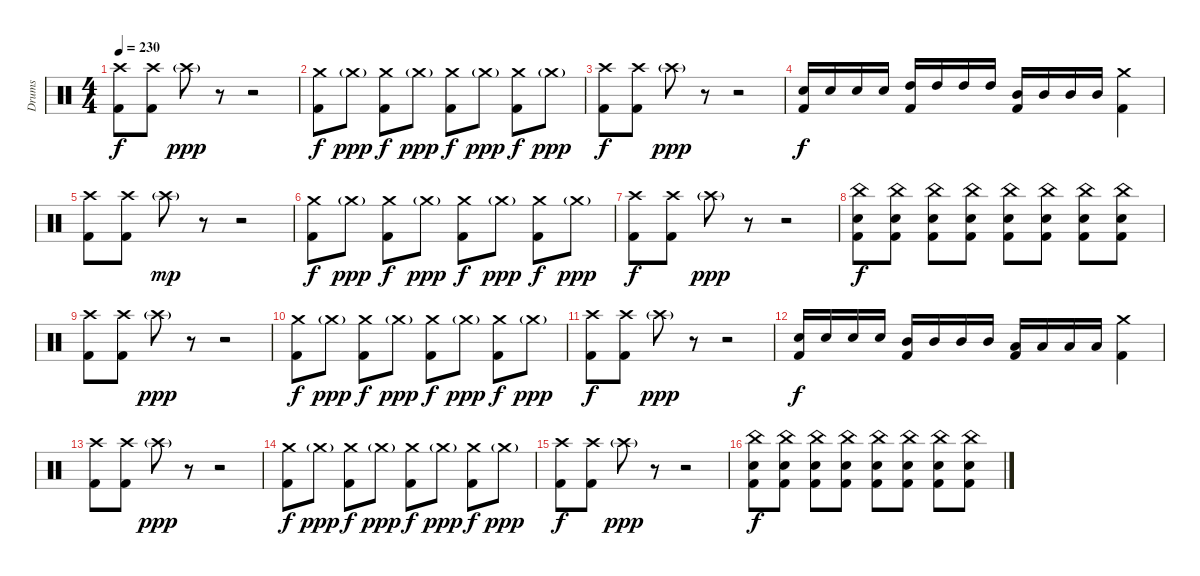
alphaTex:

\track ("Drums" "Drums") {instrument percussion}
\staff {score}
\articulation defaults
\ts (4 4)
\tempo 230
\clef neutral
\ks c
("Crash high (hit)" "Kick (hit) 2").8{dy f} ("Crash high (hit)" "Kick (hit) 2").8 "Crash high (hit)"{g}.8{dy ppp} r.8 r.2 |
("Crash medium (hit)" "Kick (hit) 2").8{dy f} "Crash medium (hit)"{g}.8{dy ppp} ("Crash medium (hit)" "Kick (hit) 2").8{dy f} "Crash medium (hit)"{g}.8{dy ppp} ("Crash medium (hit)" "Kick (hit) 2").8{dy f} "Crash medium (hit)"{g}.8{dy ppp} ("Crash medium (hit)" "Kick (hit) 2").8{dy f} "Crash medium (hit)"{g}.8{dy ppp} |
("Crash high (hit)" "Kick (hit) 2").8{dy f} ("Crash high (hit)" "Kick (hit) 2").8 "Crash high (hit)"{g}.8{dy ppp} r.8 r.2 |
("Electric Snare (hit)" "Kick (hit) 2").16{dy f} "Electric Snare (hit)".16 "Electric Snare (hit)".16 "Electric Snare (hit)".16 ("High Tom (hit)" "Kick (hit) 2").16 "High Tom (hit)".16 "High Tom (hit)".16 "High Tom (hit)".16 ("Mid Tom (hit)" "Kick (hit) 2").16 "Mid Tom (hit)".16 "Mid Tom (hit)".16 "Mid Tom (hit)".16 ("Crash medium (hit)" "Kick (hit) 2").4 |
("Crash high (hit)" "Kick (hit) 2").8 ("Crash high (hit)" "Kick (hit) 2").8 "Crash high (hit)"{g}.8{dy mp} r.8 r.2 |
("Crash medium (hit)" "Kick (hit) 2").8{dy f} "Crash medium (hit)"{g}.8{dy ppp} ("Crash medium (hit)" "Kick (hit) 2").8{dy f} "Crash medium (hit)"{g}.8{dy ppp} ("Crash medium (hit)" "Kick (hit) 2").8{dy f} "Crash medium (hit)"{g}.8{dy ppp} ("Crash medium (hit)" "Kick (hit) 2").8{dy f} "Crash medium (hit)"{g}.8{dy ppp} |
("Crash high (hit)" "Kick (hit) 2").8{dy f} ("Crash high (hit)" "Kick (hit) 2").8 "Crash high (hit)"{g}.8{dy ppp} r.8 r.2 |
("China (hit)" "Electric Snare (hit)" "Kick (hit) 2").8{dy f} ("China (hit)" "Electric Snare (hit)" "Kick (hit) 2").8 ("China (hit)" "Electric Snare (hit)" "Kick (hit) 2").8 ("China (hit)" "Electric Snare (hit)" "Kick (hit) 2").8 ("China (hit)" "Electric Snare (hit)" "Kick (hit) 2").8 ("China (hit)" "Electric Snare (hit)" "Kick (hit) 2").8 ("China (hit)" "Electric Snare (hit)" "Kick (hit) 2").8 ("China (hit)" "Electric Snare (hit)" "Kick (hit) 2").8 |
("Crash high (hit)" "Kick (hit) 2").8 ("Crash high (hit)" "Kick (hit) 2").8 "Crash high (hit)"{g}.8{dy ppp} r.8 r.2 |
("Crash medium (hit)" "Kick (hit) 2").8{dy f} "Crash medium (hit)"{g}.8{dy ppp} ("Crash medium (hit)" "Kick (hit) 2").8{dy f} "Crash medium (hit)"{g}.8{dy ppp} ("Crash medium (hit)" "Kick (hit) 2").8{dy f} "Crash medium (hit)"{g}.8{dy ppp} ("Crash medium (hit)" "Kick (hit) 2").8{dy f} "Crash medium (hit)"{g}.8{dy ppp} |
("Crash high (hit)" "Kick (hit) 2").8{dy f} ("Crash high (hit)" "Kick (hit) 2").8 "Crash high (hit)"{g}.8{dy ppp} r.8 r.2 |
("Electric Snare (hit)" "Kick (hit) 2").16{dy f} "Electric Snare (hit)".16 "Electric Snare (hit)".16 "Electric Snare (hit)".16 ("Mid Tom (hit)" "Kick (hit) 2").16 "Mid Tom (hit)".16 "Mid Tom (hit)".16 "Mid Tom (hit)".16 ("Low Tom (hit)" "Kick (hit) 2").16 "Low Tom (hit)".16 "Low Tom (hit)".16 "Low Tom (hit)".16 ("Crash medium (hit)" "Kick (hit) 2").4 |
("Crash high (hit)" "Kick (hit) 2").8 ("Crash high (hit)" "Kick (hit) 2").8 "Crash high (hit)"{g}.8{dy ppp} r.8 r.2 |
("Crash medium (hit)" "Kick (hit) 2").8{dy f} "Crash medium (hit)"{g}.8{dy ppp} ("Crash medium (hit)" "Kick (hit) 2").8{dy f} "Crash medium (hit)"{g}.8{dy ppp} ("Crash medium (hit)" "Kick (hit) 2").8{dy f} "Crash medium (hit)"{g}.8{dy ppp} ("Crash medium (hit)" "Kick (hit) 2").8{dy f} "Crash medium (hit)"{g}.8{dy ppp} |
("Crash high (hit)" "Kick (hit) 2").8{dy f} ("Crash high (hit)" "Kick (hit) 2").8 "Crash high (hit)"{g}.8{dy ppp} r.8 r.2 |
("China (hit)" "Electric Snare (hit)" "Kick (hit) 2").8{dy f} ("China (hit)" "Electric Snare (hit)" "Kick (hit) 2").8 ("China (hit)" "Electric Snare (hit)" "Kick (hit) 2").8 ("China (hit)" "Electric Snare (hit)" "Kick (hit) 2").8 ("China (hit)" "Electric Snare (hit)" "Kick (hit) 2").8 ("China (hit)" "Electric Snare (hit)" "Kick (hit) 2").8 ("China (hit)" "Electric Snare (hit)" "Kick (hit) 2").8 ("China (hit)" "Electric Snare (hit)" "Kick (hit) 2").8
